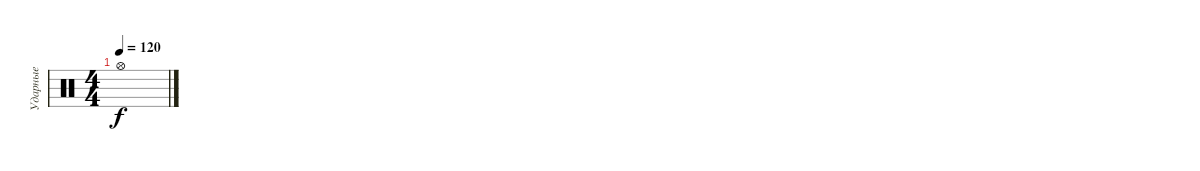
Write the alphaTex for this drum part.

\track ("Ударные" "Ударные") {instrument percussion}
\staff {score}
\articulation defaults
\ts (4 4)
\tempo 120
\clef neutral
\ks c "Hi-Hat (open)".1{dy f}
